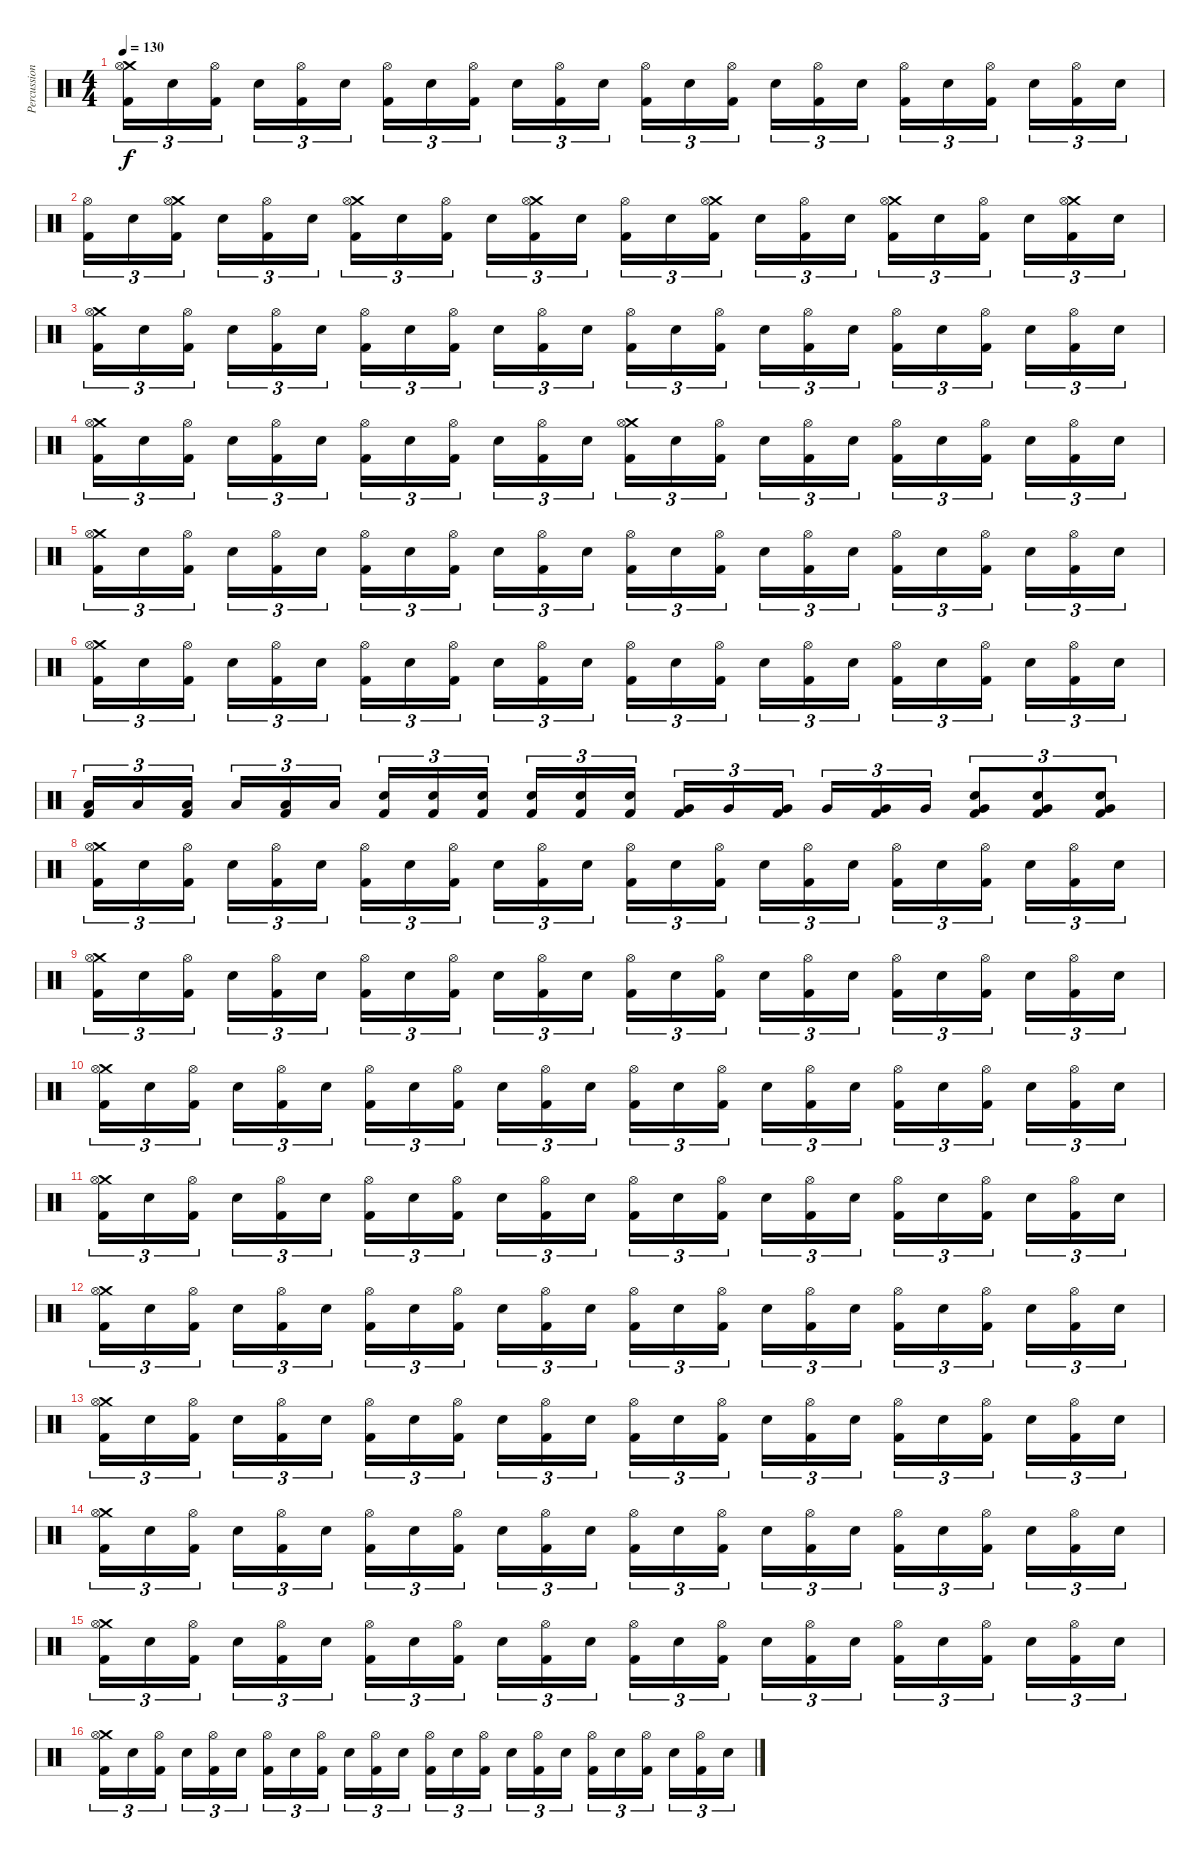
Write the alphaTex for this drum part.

\track ("Percussion" "Percussion") {instrument percussion}
\staff {score}
\articulation defaults
\ts (4 4)
\tempo 130
\clef neutral
\ks c
("Crash medium (hit)" "Hi-Hat (open)" "Kick (hit) 2").16{tu (3 2) dy f} "Snare (hit) 2".16{tu (3 2)} ("Hi-Hat (open)" "Kick (hit) 2").16{tu (3 2)} "Snare (hit) 2".16{tu (3 2)} ("Hi-Hat (open)" "Kick (hit) 2").16{tu (3 2)} "Snare (hit) 2".16{tu (3 2)} ("Hi-Hat (open)" "Kick (hit) 2").16{tu (3 2)} "Snare (hit) 2".16{tu (3 2)} ("Hi-Hat (open)" "Kick (hit) 2").16{tu (3 2)} "Snare (hit) 2".16{tu (3 2)} ("Hi-Hat (open)" "Kick (hit) 2").16{tu (3 2)} "Snare (hit) 2".16{tu (3 2)} ("Hi-Hat (open)" "Kick (hit) 2").16{tu (3 2)} "Snare (hit) 2".16{tu (3 2)} ("Hi-Hat (open)" "Kick (hit) 2").16{tu (3 2)} "Snare (hit) 2".16{tu (3 2)} ("Hi-Hat (open)" "Kick (hit) 2").16{tu (3 2)} "Snare (hit) 2".16{tu (3 2)} ("Hi-Hat (open)" "Kick (hit) 2").16{tu (3 2)} "Snare (hit) 2".16{tu (3 2)} ("Hi-Hat (open)" "Kick (hit) 2").16{tu (3 2)} "Snare (hit) 2".16{tu (3 2)} ("Hi-Hat (open)" "Kick (hit) 2").16{tu (3 2)} "Snare (hit) 2".16{tu (3 2)} |
("Hi-Hat (open)" "Kick (hit) 2").16{tu (3 2)} "Snare (hit) 2".16{tu (3 2)} ("Crash medium (hit)" "Hi-Hat (open)" "Kick (hit) 2").16{tu (3 2)} "Snare (hit) 2".16{tu (3 2)} ("Hi-Hat (open)" "Kick (hit) 2").16{tu (3 2)} "Snare (hit) 2".16{tu (3 2)} ("Crash medium (hit)" "Hi-Hat (open)" "Kick (hit) 2").16{tu (3 2)} "Snare (hit) 2".16{tu (3 2)} ("Hi-Hat (open)" "Kick (hit) 2").16{tu (3 2)} "Snare (hit) 2".16{tu (3 2)} ("Crash medium (hit)" "Hi-Hat (open)" "Kick (hit) 2").16{tu (3 2)} "Snare (hit) 2".16{tu (3 2)} ("Hi-Hat (open)" "Kick (hit) 2").16{tu (3 2)} "Snare (hit) 2".16{tu (3 2)} ("Crash medium (hit)" "Hi-Hat (open)" "Kick (hit) 2").16{tu (3 2)} "Snare (hit) 2".16{tu (3 2)} ("Hi-Hat (open)" "Kick (hit) 2").16{tu (3 2)} "Snare (hit) 2".16{tu (3 2)} ("Crash medium (hit)" "Hi-Hat (open)" "Kick (hit) 2").16{tu (3 2)} "Snare (hit) 2".16{tu (3 2)} ("Hi-Hat (open)" "Kick (hit) 2").16{tu (3 2)} "Snare (hit) 2".16{tu (3 2)} ("Crash medium (hit)" "Hi-Hat (open)" "Kick (hit) 2").16{tu (3 2)} "Snare (hit) 2".16{tu (3 2)} |
("Crash medium (hit)" "Hi-Hat (open)" "Kick (hit) 2").16{tu (3 2)} "Snare (hit) 2".16{tu (3 2)} ("Hi-Hat (open)" "Kick (hit) 2").16{tu (3 2)} "Snare (hit) 2".16{tu (3 2)} ("Hi-Hat (open)" "Kick (hit) 2").16{tu (3 2)} "Snare (hit) 2".16{tu (3 2)} ("Hi-Hat (open)" "Kick (hit) 2").16{tu (3 2)} "Snare (hit) 2".16{tu (3 2)} ("Hi-Hat (open)" "Kick (hit) 2").16{tu (3 2)} "Snare (hit) 2".16{tu (3 2)} ("Hi-Hat (open)" "Kick (hit) 2").16{tu (3 2)} "Snare (hit) 2".16{tu (3 2)} ("Hi-Hat (open)" "Kick (hit) 2").16{tu (3 2)} "Snare (hit) 2".16{tu (3 2)} ("Hi-Hat (open)" "Kick (hit) 2").16{tu (3 2)} "Snare (hit) 2".16{tu (3 2)} ("Hi-Hat (open)" "Kick (hit) 2").16{tu (3 2)} "Snare (hit) 2".16{tu (3 2)} ("Hi-Hat (open)" "Kick (hit) 2").16{tu (3 2)} "Snare (hit) 2".16{tu (3 2)} ("Hi-Hat (open)" "Kick (hit) 2").16{tu (3 2)} "Snare (hit) 2".16{tu (3 2)} ("Hi-Hat (open)" "Kick (hit) 2").16{tu (3 2)} "Snare (hit) 2".16{tu (3 2)} |
("Crash medium (hit)" "Hi-Hat (open)" "Kick (hit) 2").16{tu (3 2)} "Snare (hit) 2".16{tu (3 2)} ("Hi-Hat (open)" "Kick (hit) 2").16{tu (3 2)} "Snare (hit) 2".16{tu (3 2)} ("Hi-Hat (open)" "Kick (hit) 2").16{tu (3 2)} "Snare (hit) 2".16{tu (3 2)} ("Hi-Hat (open)" "Kick (hit) 2").16{tu (3 2)} "Snare (hit) 2".16{tu (3 2)} ("Hi-Hat (open)" "Kick (hit) 2").16{tu (3 2)} "Snare (hit) 2".16{tu (3 2)} ("Hi-Hat (open)" "Kick (hit) 2").16{tu (3 2)} "Snare (hit) 2".16{tu (3 2)} ("Crash medium (hit)" "Hi-Hat (open)" "Kick (hit) 2").16{tu (3 2)} "Snare (hit) 2".16{tu (3 2)} ("Hi-Hat (open)" "Kick (hit) 2").16{tu (3 2)} "Snare (hit) 2".16{tu (3 2)} ("Hi-Hat (open)" "Kick (hit) 2").16{tu (3 2)} "Snare (hit) 2".16{tu (3 2)} ("Hi-Hat (open)" "Kick (hit) 2").16{tu (3 2)} "Snare (hit) 2".16{tu (3 2)} ("Hi-Hat (open)" "Kick (hit) 2").16{tu (3 2)} "Snare (hit) 2".16{tu (3 2)} ("Hi-Hat (open)" "Kick (hit) 2").16{tu (3 2)} "Snare (hit) 2".16{tu (3 2)} |
("Crash medium (hit)" "Hi-Hat (open)" "Kick (hit) 2").16{tu (3 2)} "Snare (hit) 2".16{tu (3 2)} ("Hi-Hat (open)" "Kick (hit) 2").16{tu (3 2)} "Snare (hit) 2".16{tu (3 2)} ("Hi-Hat (open)" "Kick (hit) 2").16{tu (3 2)} "Snare (hit) 2".16{tu (3 2)} ("Hi-Hat (open)" "Kick (hit) 2").16{tu (3 2)} "Snare (hit) 2".16{tu (3 2)} ("Hi-Hat (open)" "Kick (hit) 2").16{tu (3 2)} "Snare (hit) 2".16{tu (3 2)} ("Hi-Hat (open)" "Kick (hit) 2").16{tu (3 2)} "Snare (hit) 2".16{tu (3 2)} ("Hi-Hat (open)" "Kick (hit) 2").16{tu (3 2)} "Snare (hit) 2".16{tu (3 2)} ("Hi-Hat (open)" "Kick (hit) 2").16{tu (3 2)} "Snare (hit) 2".16{tu (3 2)} ("Hi-Hat (open)" "Kick (hit) 2").16{tu (3 2)} "Snare (hit) 2".16{tu (3 2)} ("Hi-Hat (open)" "Kick (hit) 2").16{tu (3 2)} "Snare (hit) 2".16{tu (3 2)} ("Hi-Hat (open)" "Kick (hit) 2").16{tu (3 2)} "Snare (hit) 2".16{tu (3 2)} ("Hi-Hat (open)" "Kick (hit) 2").16{tu (3 2)} "Snare (hit) 2".16{tu (3 2)} |
("Crash medium (hit)" "Hi-Hat (open)" "Kick (hit) 2").16{tu (3 2)} "Snare (hit) 2".16{tu (3 2)} ("Hi-Hat (open)" "Kick (hit) 2").16{tu (3 2)} "Snare (hit) 2".16{tu (3 2)} ("Hi-Hat (open)" "Kick (hit) 2").16{tu (3 2)} "Snare (hit) 2".16{tu (3 2)} ("Hi-Hat (open)" "Kick (hit) 2").16{tu (3 2)} "Snare (hit) 2".16{tu (3 2)} ("Hi-Hat (open)" "Kick (hit) 2").16{tu (3 2)} "Snare (hit) 2".16{tu (3 2)} ("Hi-Hat (open)" "Kick (hit) 2").16{tu (3 2)} "Snare (hit) 2".16{tu (3 2)} ("Hi-Hat (open)" "Kick (hit) 2").16{tu (3 2)} "Snare (hit) 2".16{tu (3 2)} ("Hi-Hat (open)" "Kick (hit) 2").16{tu (3 2)} "Snare (hit) 2".16{tu (3 2)} ("Hi-Hat (open)" "Kick (hit) 2").16{tu (3 2)} "Snare (hit) 2".16{tu (3 2)} ("Hi-Hat (open)" "Kick (hit) 2").16{tu (3 2)} "Snare (hit) 2".16{tu (3 2)} ("Hi-Hat (open)" "Kick (hit) 2").16{tu (3 2)} "Snare (hit) 2".16{tu (3 2)} ("Hi-Hat (open)" "Kick (hit) 2").16{tu (3 2)} "Snare (hit) 2".16{tu (3 2)} |
("Low Tom (hit)" "Kick (hit) 2").16{tu (3 2)} "Low Tom (hit)".16{tu (3 2)} ("Low Tom (hit)" "Kick (hit) 2").16{tu (3 2)} "Low Tom (hit)".16{tu (3 2)} ("Low Tom (hit)" "Kick (hit) 2").16{tu (3 2)} "Low Tom (hit)".16{tu (3 2)} ("Snare (hit) 2" "Kick (hit) 2").16{tu (3 2)} ("Snare (hit) 2" "Kick (hit) 2").16{tu (3 2)} ("Snare (hit) 2" "Kick (hit) 2").16{tu (3 2)} ("Snare (hit) 2" "Kick (hit) 2").16{tu (3 2)} ("Snare (hit) 2" "Kick (hit) 2").16{tu (3 2)} ("Snare (hit) 2" "Kick (hit) 2").16{tu (3 2)} ("Very Low Tom (hit)" "Kick (hit) 2").16{tu (3 2)} "Very Low Tom (hit)".16{tu (3 2)} ("Very Low Tom (hit)" "Kick (hit) 2").16{tu (3 2)} "Very Low Tom (hit)".16{tu (3 2)} ("Very Low Tom (hit)" "Kick (hit) 2").16{tu (3 2)} "Very Low Tom (hit)".16{tu (3 2)} ("Very Low Tom (hit)" "Snare (hit) 2" "Kick (hit) 2").8{tu (3 2)} ("Very Low Tom (hit)" "Snare (hit) 2" "Kick (hit) 2").8{tu (3 2)} ("Very Low Tom (hit)" "Snare (hit) 2" "Kick (hit) 2").8{tu (3 2)} |
("Crash medium (hit)" "Hi-Hat (open)" "Kick (hit) 2").16{tu (3 2)} "Snare (hit) 2".16{tu (3 2)} ("Hi-Hat (open)" "Kick (hit) 2").16{tu (3 2)} "Snare (hit) 2".16{tu (3 2)} ("Hi-Hat (open)" "Kick (hit) 2").16{tu (3 2)} "Snare (hit) 2".16{tu (3 2)} ("Hi-Hat (open)" "Kick (hit) 2").16{tu (3 2)} "Snare (hit) 2".16{tu (3 2)} ("Hi-Hat (open)" "Kick (hit) 2").16{tu (3 2)} "Snare (hit) 2".16{tu (3 2)} ("Hi-Hat (open)" "Kick (hit) 2").16{tu (3 2)} "Snare (hit) 2".16{tu (3 2)} ("Hi-Hat (open)" "Kick (hit) 2").16{tu (3 2)} "Snare (hit) 2".16{tu (3 2)} ("Hi-Hat (open)" "Kick (hit) 2").16{tu (3 2)} "Snare (hit) 2".16{tu (3 2)} ("Hi-Hat (open)" "Kick (hit) 2").16{tu (3 2)} "Snare (hit) 2".16{tu (3 2)} ("Hi-Hat (open)" "Kick (hit) 2").16{tu (3 2)} "Snare (hit) 2".16{tu (3 2)} ("Hi-Hat (open)" "Kick (hit) 2").16{tu (3 2)} "Snare (hit) 2".16{tu (3 2)} ("Hi-Hat (open)" "Kick (hit) 2").16{tu (3 2)} "Snare (hit) 2".16{tu (3 2)} |
("Crash medium (hit)" "Hi-Hat (open)" "Kick (hit) 2").16{tu (3 2)} "Snare (hit) 2".16{tu (3 2)} ("Hi-Hat (open)" "Kick (hit) 2").16{tu (3 2)} "Snare (hit) 2".16{tu (3 2)} ("Hi-Hat (open)" "Kick (hit) 2").16{tu (3 2)} "Snare (hit) 2".16{tu (3 2)} ("Hi-Hat (open)" "Kick (hit) 2").16{tu (3 2)} "Snare (hit) 2".16{tu (3 2)} ("Hi-Hat (open)" "Kick (hit) 2").16{tu (3 2)} "Snare (hit) 2".16{tu (3 2)} ("Hi-Hat (open)" "Kick (hit) 2").16{tu (3 2)} "Snare (hit) 2".16{tu (3 2)} ("Hi-Hat (open)" "Kick (hit) 2").16{tu (3 2)} "Snare (hit) 2".16{tu (3 2)} ("Hi-Hat (open)" "Kick (hit) 2").16{tu (3 2)} "Snare (hit) 2".16{tu (3 2)} ("Hi-Hat (open)" "Kick (hit) 2").16{tu (3 2)} "Snare (hit) 2".16{tu (3 2)} ("Hi-Hat (open)" "Kick (hit) 2").16{tu (3 2)} "Snare (hit) 2".16{tu (3 2)} ("Hi-Hat (open)" "Kick (hit) 2").16{tu (3 2)} "Snare (hit) 2".16{tu (3 2)} ("Hi-Hat (open)" "Kick (hit) 2").16{tu (3 2)} "Snare (hit) 2".16{tu (3 2)} |
("Crash medium (hit)" "Hi-Hat (open)" "Kick (hit) 2").16{tu (3 2)} "Snare (hit) 2".16{tu (3 2)} ("Hi-Hat (open)" "Kick (hit) 2").16{tu (3 2)} "Snare (hit) 2".16{tu (3 2)} ("Hi-Hat (open)" "Kick (hit) 2").16{tu (3 2)} "Snare (hit) 2".16{tu (3 2)} ("Hi-Hat (open)" "Kick (hit) 2").16{tu (3 2)} "Snare (hit) 2".16{tu (3 2)} ("Hi-Hat (open)" "Kick (hit) 2").16{tu (3 2)} "Snare (hit) 2".16{tu (3 2)} ("Hi-Hat (open)" "Kick (hit) 2").16{tu (3 2)} "Snare (hit) 2".16{tu (3 2)} ("Hi-Hat (open)" "Kick (hit) 2").16{tu (3 2)} "Snare (hit) 2".16{tu (3 2)} ("Hi-Hat (open)" "Kick (hit) 2").16{tu (3 2)} "Snare (hit) 2".16{tu (3 2)} ("Hi-Hat (open)" "Kick (hit) 2").16{tu (3 2)} "Snare (hit) 2".16{tu (3 2)} ("Hi-Hat (open)" "Kick (hit) 2").16{tu (3 2)} "Snare (hit) 2".16{tu (3 2)} ("Hi-Hat (open)" "Kick (hit) 2").16{tu (3 2)} "Snare (hit) 2".16{tu (3 2)} ("Hi-Hat (open)" "Kick (hit) 2").16{tu (3 2)} "Snare (hit) 2".16{tu (3 2)} |
("Crash medium (hit)" "Hi-Hat (open)" "Kick (hit) 2").16{tu (3 2)} "Snare (hit) 2".16{tu (3 2)} ("Hi-Hat (open)" "Kick (hit) 2").16{tu (3 2)} "Snare (hit) 2".16{tu (3 2)} ("Hi-Hat (open)" "Kick (hit) 2").16{tu (3 2)} "Snare (hit) 2".16{tu (3 2)} ("Hi-Hat (open)" "Kick (hit) 2").16{tu (3 2)} "Snare (hit) 2".16{tu (3 2)} ("Hi-Hat (open)" "Kick (hit) 2").16{tu (3 2)} "Snare (hit) 2".16{tu (3 2)} ("Hi-Hat (open)" "Kick (hit) 2").16{tu (3 2)} "Snare (hit) 2".16{tu (3 2)} ("Hi-Hat (open)" "Kick (hit) 2").16{tu (3 2)} "Snare (hit) 2".16{tu (3 2)} ("Hi-Hat (open)" "Kick (hit) 2").16{tu (3 2)} "Snare (hit) 2".16{tu (3 2)} ("Hi-Hat (open)" "Kick (hit) 2").16{tu (3 2)} "Snare (hit) 2".16{tu (3 2)} ("Hi-Hat (open)" "Kick (hit) 2").16{tu (3 2)} "Snare (hit) 2".16{tu (3 2)} ("Hi-Hat (open)" "Kick (hit) 2").16{tu (3 2)} "Snare (hit) 2".16{tu (3 2)} ("Hi-Hat (open)" "Kick (hit) 2").16{tu (3 2)} "Snare (hit) 2".16{tu (3 2)} |
("Crash medium (hit)" "Hi-Hat (open)" "Kick (hit) 2").16{tu (3 2)} "Snare (hit) 2".16{tu (3 2)} ("Hi-Hat (open)" "Kick (hit) 2").16{tu (3 2)} "Snare (hit) 2".16{tu (3 2)} ("Hi-Hat (open)" "Kick (hit) 2").16{tu (3 2)} "Snare (hit) 2".16{tu (3 2)} ("Hi-Hat (open)" "Kick (hit) 2").16{tu (3 2)} "Snare (hit) 2".16{tu (3 2)} ("Hi-Hat (open)" "Kick (hit) 2").16{tu (3 2)} "Snare (hit) 2".16{tu (3 2)} ("Hi-Hat (open)" "Kick (hit) 2").16{tu (3 2)} "Snare (hit) 2".16{tu (3 2)} ("Hi-Hat (open)" "Kick (hit) 2").16{tu (3 2)} "Snare (hit) 2".16{tu (3 2)} ("Hi-Hat (open)" "Kick (hit) 2").16{tu (3 2)} "Snare (hit) 2".16{tu (3 2)} ("Hi-Hat (open)" "Kick (hit) 2").16{tu (3 2)} "Snare (hit) 2".16{tu (3 2)} ("Hi-Hat (open)" "Kick (hit) 2").16{tu (3 2)} "Snare (hit) 2".16{tu (3 2)} ("Hi-Hat (open)" "Kick (hit) 2").16{tu (3 2)} "Snare (hit) 2".16{tu (3 2)} ("Hi-Hat (open)" "Kick (hit) 2").16{tu (3 2)} "Snare (hit) 2".16{tu (3 2)} |
("Crash medium (hit)" "Hi-Hat (open)" "Kick (hit) 2").16{tu (3 2)} "Snare (hit) 2".16{tu (3 2)} ("Hi-Hat (open)" "Kick (hit) 2").16{tu (3 2)} "Snare (hit) 2".16{tu (3 2)} ("Hi-Hat (open)" "Kick (hit) 2").16{tu (3 2)} "Snare (hit) 2".16{tu (3 2)} ("Hi-Hat (open)" "Kick (hit) 2").16{tu (3 2)} "Snare (hit) 2".16{tu (3 2)} ("Hi-Hat (open)" "Kick (hit) 2").16{tu (3 2)} "Snare (hit) 2".16{tu (3 2)} ("Hi-Hat (open)" "Kick (hit) 2").16{tu (3 2)} "Snare (hit) 2".16{tu (3 2)} ("Hi-Hat (open)" "Kick (hit) 2").16{tu (3 2)} "Snare (hit) 2".16{tu (3 2)} ("Hi-Hat (open)" "Kick (hit) 2").16{tu (3 2)} "Snare (hit) 2".16{tu (3 2)} ("Hi-Hat (open)" "Kick (hit) 2").16{tu (3 2)} "Snare (hit) 2".16{tu (3 2)} ("Hi-Hat (open)" "Kick (hit) 2").16{tu (3 2)} "Snare (hit) 2".16{tu (3 2)} ("Hi-Hat (open)" "Kick (hit) 2").16{tu (3 2)} "Snare (hit) 2".16{tu (3 2)} ("Hi-Hat (open)" "Kick (hit) 2").16{tu (3 2)} "Snare (hit) 2".16{tu (3 2)} |
("Crash medium (hit)" "Hi-Hat (open)" "Kick (hit) 2").16{tu (3 2)} "Snare (hit) 2".16{tu (3 2)} ("Hi-Hat (open)" "Kick (hit) 2").16{tu (3 2)} "Snare (hit) 2".16{tu (3 2)} ("Hi-Hat (open)" "Kick (hit) 2").16{tu (3 2)} "Snare (hit) 2".16{tu (3 2)} ("Hi-Hat (open)" "Kick (hit) 2").16{tu (3 2)} "Snare (hit) 2".16{tu (3 2)} ("Hi-Hat (open)" "Kick (hit) 2").16{tu (3 2)} "Snare (hit) 2".16{tu (3 2)} ("Hi-Hat (open)" "Kick (hit) 2").16{tu (3 2)} "Snare (hit) 2".16{tu (3 2)} ("Hi-Hat (open)" "Kick (hit) 2").16{tu (3 2)} "Snare (hit) 2".16{tu (3 2)} ("Hi-Hat (open)" "Kick (hit) 2").16{tu (3 2)} "Snare (hit) 2".16{tu (3 2)} ("Hi-Hat (open)" "Kick (hit) 2").16{tu (3 2)} "Snare (hit) 2".16{tu (3 2)} ("Hi-Hat (open)" "Kick (hit) 2").16{tu (3 2)} "Snare (hit) 2".16{tu (3 2)} ("Hi-Hat (open)" "Kick (hit) 2").16{tu (3 2)} "Snare (hit) 2".16{tu (3 2)} ("Hi-Hat (open)" "Kick (hit) 2").16{tu (3 2)} "Snare (hit) 2".16{tu (3 2)} |
("Crash medium (hit)" "Hi-Hat (open)" "Kick (hit) 2").16{tu (3 2)} "Snare (hit) 2".16{tu (3 2)} ("Hi-Hat (open)" "Kick (hit) 2").16{tu (3 2)} "Snare (hit) 2".16{tu (3 2)} ("Hi-Hat (open)" "Kick (hit) 2").16{tu (3 2)} "Snare (hit) 2".16{tu (3 2)} ("Hi-Hat (open)" "Kick (hit) 2").16{tu (3 2)} "Snare (hit) 2".16{tu (3 2)} ("Hi-Hat (open)" "Kick (hit) 2").16{tu (3 2)} "Snare (hit) 2".16{tu (3 2)} ("Hi-Hat (open)" "Kick (hit) 2").16{tu (3 2)} "Snare (hit) 2".16{tu (3 2)} ("Hi-Hat (open)" "Kick (hit) 2").16{tu (3 2)} "Snare (hit) 2".16{tu (3 2)} ("Hi-Hat (open)" "Kick (hit) 2").16{tu (3 2)} "Snare (hit) 2".16{tu (3 2)} ("Hi-Hat (open)" "Kick (hit) 2").16{tu (3 2)} "Snare (hit) 2".16{tu (3 2)} ("Hi-Hat (open)" "Kick (hit) 2").16{tu (3 2)} "Snare (hit) 2".16{tu (3 2)} ("Hi-Hat (open)" "Kick (hit) 2").16{tu (3 2)} "Snare (hit) 2".16{tu (3 2)} ("Hi-Hat (open)" "Kick (hit) 2").16{tu (3 2)} "Snare (hit) 2".16{tu (3 2)} |
("Crash medium (hit)" "Hi-Hat (open)" "Kick (hit) 2").16{tu (3 2)} "Snare (hit) 2".16{tu (3 2)} ("Hi-Hat (open)" "Kick (hit) 2").16{tu (3 2)} "Snare (hit) 2".16{tu (3 2)} ("Hi-Hat (open)" "Kick (hit) 2").16{tu (3 2)} "Snare (hit) 2".16{tu (3 2)} ("Hi-Hat (open)" "Kick (hit) 2").16{tu (3 2)} "Snare (hit) 2".16{tu (3 2)} ("Hi-Hat (open)" "Kick (hit) 2").16{tu (3 2)} "Snare (hit) 2".16{tu (3 2)} ("Hi-Hat (open)" "Kick (hit) 2").16{tu (3 2)} "Snare (hit) 2".16{tu (3 2)} ("Hi-Hat (open)" "Kick (hit) 2").16{tu (3 2)} "Snare (hit) 2".16{tu (3 2)} ("Hi-Hat (open)" "Kick (hit) 2").16{tu (3 2)} "Snare (hit) 2".16{tu (3 2)} ("Hi-Hat (open)" "Kick (hit) 2").16{tu (3 2)} "Snare (hit) 2".16{tu (3 2)} ("Hi-Hat (open)" "Kick (hit) 2").16{tu (3 2)} "Snare (hit) 2".16{tu (3 2)} ("Hi-Hat (open)" "Kick (hit) 2").16{tu (3 2)} "Snare (hit) 2".16{tu (3 2)} ("Hi-Hat (open)" "Kick (hit) 2").16{tu (3 2)} "Snare (hit) 2".16{tu (3 2)}
